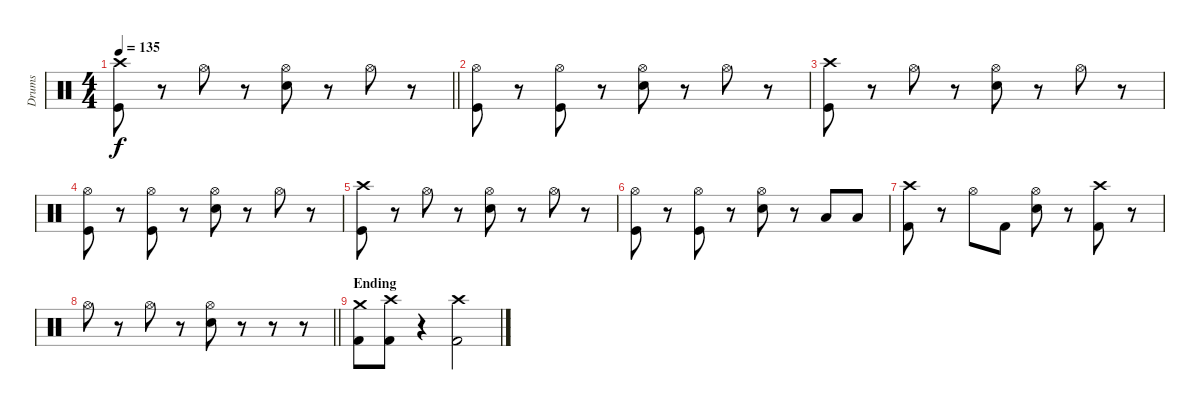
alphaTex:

\track ("Drums" "Drums") {instrument percussion}
\staff {score}
\articulation defaults
\ts (4 4)
\tempo 135
\clef neutral
\barLineRight lightlight
\ks c
("Crash high (hit)" "Kick (hit)").8{dy f} r.8 "Hi-Hat (open)".8 r.8 ("Hi-Hat (open)" "Snare (hit) 2").8 r.8 "Hi-Hat (open)".8 r.8 |
("Hi-Hat (open)" "Kick (hit)").8 r.8 ("Hi-Hat (open)" "Kick (hit)").8 r.8 ("Hi-Hat (open)" "Snare (hit) 2").8 r.8 "Hi-Hat (open)".8 r.8 |
("Crash high (hit)" "Kick (hit)").8 r.8 "Hi-Hat (open)".8 r.8 ("Hi-Hat (open)" "Snare (hit) 2").8 r.8 "Hi-Hat (open)".8 r.8 |
("Hi-Hat (open)" "Kick (hit)").8 r.8 ("Hi-Hat (open)" "Kick (hit)").8 r.8 ("Hi-Hat (open)" "Snare (hit) 2").8 r.8 "Hi-Hat (open)".8 r.8 |
("Crash high (hit)" "Kick (hit)").8 r.8 "Hi-Hat (open)".8 r.8 ("Hi-Hat (open)" "Snare (hit) 2").8 r.8 "Hi-Hat (open)".8 r.8 |
("Hi-Hat (open)" "Kick (hit)").8 r.8 ("Hi-Hat (open)" "Kick (hit)").8 r.8 ("Hi-Hat (open)" "Snare (hit) 2").8 r.8 "Low Tom (hit)".8 "Low Tom (hit)".8 |
("Crash high (hit)" "Kick (hit) 2").8 r.8 "Hi-Hat (open)".8 "Kick (hit) 2".8 ("Hi-Hat (open)" "Snare (hit) 2").8 r.8 ("Crash high (hit)" "Kick (hit) 2").8 r.8 |
\barLineRight lightlight "Hi-Hat (open)".8
r.8 "Hi-Hat (open)".8 r.8 ("Hi-Hat (open)" "Snare (hit) 2").8 r.8 r.8 r.8 |
\section ("" "Ending")
("Crash medium (hit)" "Kick (hit) 2").8 ("Crash high (hit)" "Kick (hit) 2").8 r.4 ("Crash high (hit)" "Kick (hit) 2").2
